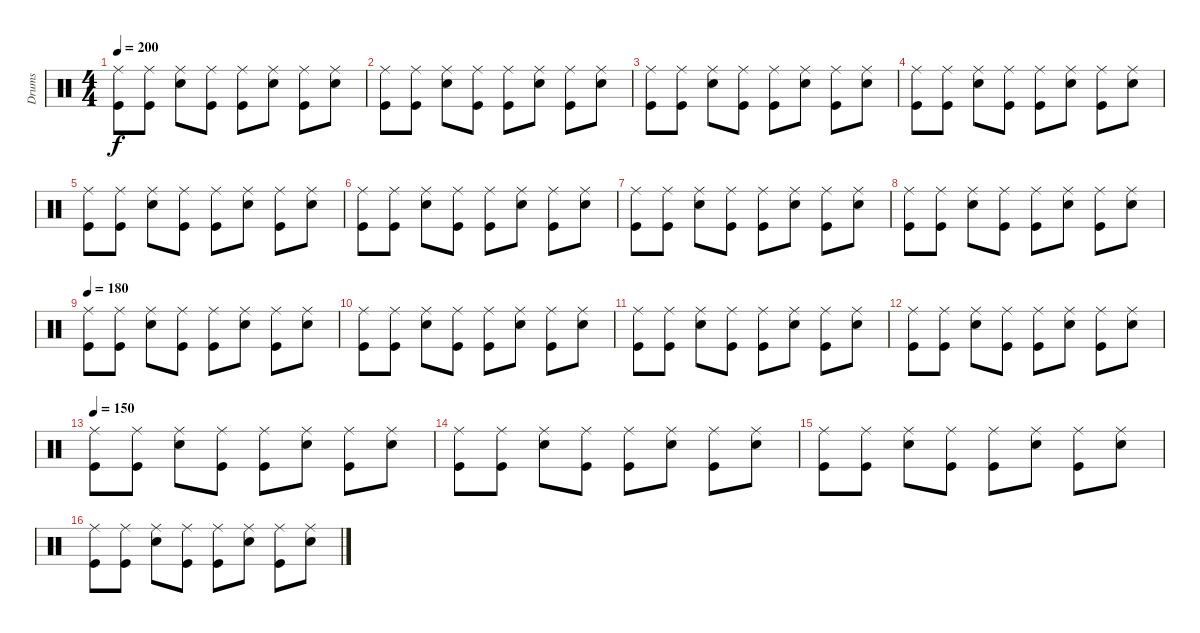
\track ("Drums" "Drums") {instrument percussion}
\staff {score}
\articulation defaults
\ts (4 4)
\tempo 200
\clef neutral
\ks c
("Ride (middle)" "Kick (hit)").8{dy f} ("Ride (middle)" "Kick (hit)").8 ("Ride (middle)" "Electric Snare (hit)").8 ("Ride (middle)" "Kick (hit)").8 ("Ride (middle)" "Kick (hit)").8 ("Ride (middle)" "Electric Snare (hit)").8 ("Ride (middle)" "Kick (hit)").8 ("Ride (middle)" "Electric Snare (hit)").8 |
("Ride (middle)" "Kick (hit)").8 ("Ride (middle)" "Kick (hit)").8 ("Ride (middle)" "Electric Snare (hit)").8 ("Ride (middle)" "Kick (hit)").8 ("Ride (middle)" "Kick (hit)").8 ("Ride (middle)" "Electric Snare (hit)").8 ("Ride (middle)" "Kick (hit)").8 ("Ride (middle)" "Electric Snare (hit)").8 |
("Ride (middle)" "Kick (hit)").8 ("Ride (middle)" "Kick (hit)").8 ("Ride (middle)" "Electric Snare (hit)").8 ("Ride (middle)" "Kick (hit)").8 ("Ride (middle)" "Kick (hit)").8 ("Ride (middle)" "Electric Snare (hit)").8 ("Ride (middle)" "Kick (hit)").8 ("Ride (middle)" "Electric Snare (hit)").8 |
("Ride (middle)" "Kick (hit)").8 ("Ride (middle)" "Kick (hit)").8 ("Ride (middle)" "Electric Snare (hit)").8 ("Ride (middle)" "Kick (hit)").8 ("Ride (middle)" "Kick (hit)").8 ("Ride (middle)" "Electric Snare (hit)").8 ("Ride (middle)" "Kick (hit)").8 ("Ride (middle)" "Electric Snare (hit)").8 |
("Ride (middle)" "Kick (hit)").8 ("Ride (middle)" "Kick (hit)").8 ("Ride (middle)" "Electric Snare (hit)").8 ("Ride (middle)" "Kick (hit)").8 ("Ride (middle)" "Kick (hit)").8 ("Ride (middle)" "Electric Snare (hit)").8 ("Ride (middle)" "Kick (hit)").8 ("Ride (middle)" "Electric Snare (hit)").8 |
("Ride (middle)" "Kick (hit)").8 ("Ride (middle)" "Kick (hit)").8 ("Ride (middle)" "Electric Snare (hit)").8 ("Ride (middle)" "Kick (hit)").8 ("Ride (middle)" "Kick (hit)").8 ("Ride (middle)" "Electric Snare (hit)").8 ("Ride (middle)" "Kick (hit)").8 ("Ride (middle)" "Electric Snare (hit)").8 |
("Ride (middle)" "Kick (hit)").8 ("Ride (middle)" "Kick (hit)").8 ("Ride (middle)" "Electric Snare (hit)").8 ("Ride (middle)" "Kick (hit)").8 ("Ride (middle)" "Kick (hit)").8 ("Ride (middle)" "Electric Snare (hit)").8 ("Ride (middle)" "Kick (hit)").8 ("Ride (middle)" "Electric Snare (hit)").8 |
("Ride (middle)" "Kick (hit)").8 ("Ride (middle)" "Kick (hit)").8 ("Ride (middle)" "Electric Snare (hit)").8 ("Ride (middle)" "Kick (hit)").8 ("Ride (middle)" "Kick (hit)").8 ("Ride (middle)" "Electric Snare (hit)").8 ("Ride (middle)" "Kick (hit)").8 ("Ride (middle)" "Electric Snare (hit)").8 |
\tempo 180
("Ride (middle)" "Kick (hit)").8 ("Ride (middle)" "Kick (hit)").8 ("Ride (middle)" "Electric Snare (hit)").8 ("Ride (middle)" "Kick (hit)").8 ("Ride (middle)" "Kick (hit)").8 ("Ride (middle)" "Electric Snare (hit)").8 ("Ride (middle)" "Kick (hit)").8 ("Ride (middle)" "Electric Snare (hit)").8 |
("Ride (middle)" "Kick (hit)").8 ("Ride (middle)" "Kick (hit)").8 ("Ride (middle)" "Electric Snare (hit)").8 ("Ride (middle)" "Kick (hit)").8 ("Ride (middle)" "Kick (hit)").8 ("Ride (middle)" "Electric Snare (hit)").8 ("Ride (middle)" "Kick (hit)").8 ("Ride (middle)" "Electric Snare (hit)").8 |
("Ride (middle)" "Kick (hit)").8 ("Ride (middle)" "Kick (hit)").8 ("Ride (middle)" "Electric Snare (hit)").8 ("Ride (middle)" "Kick (hit)").8 ("Ride (middle)" "Kick (hit)").8 ("Ride (middle)" "Electric Snare (hit)").8 ("Ride (middle)" "Kick (hit)").8 ("Ride (middle)" "Electric Snare (hit)").8 |
("Ride (middle)" "Kick (hit)").8 ("Ride (middle)" "Kick (hit)").8 ("Ride (middle)" "Electric Snare (hit)").8 ("Ride (middle)" "Kick (hit)").8 ("Ride (middle)" "Kick (hit)").8 ("Ride (middle)" "Electric Snare (hit)").8 ("Ride (middle)" "Kick (hit)").8 ("Ride (middle)" "Electric Snare (hit)").8 |
\tempo 150
("Ride (middle)" "Kick (hit)").8 ("Ride (middle)" "Kick (hit)").8 ("Ride (middle)" "Electric Snare (hit)").8 ("Ride (middle)" "Kick (hit)").8 ("Ride (middle)" "Kick (hit)").8 ("Ride (middle)" "Electric Snare (hit)").8 ("Ride (middle)" "Kick (hit)").8 ("Ride (middle)" "Electric Snare (hit)").8 |
("Ride (middle)" "Kick (hit)").8 ("Ride (middle)" "Kick (hit)").8 ("Ride (middle)" "Electric Snare (hit)").8 ("Ride (middle)" "Kick (hit)").8 ("Ride (middle)" "Kick (hit)").8 ("Ride (middle)" "Electric Snare (hit)").8 ("Ride (middle)" "Kick (hit)").8 ("Ride (middle)" "Electric Snare (hit)").8 |
("Ride (middle)" "Kick (hit)").8 ("Ride (middle)" "Kick (hit)").8 ("Ride (middle)" "Electric Snare (hit)").8 ("Ride (middle)" "Kick (hit)").8 ("Ride (middle)" "Kick (hit)").8 ("Ride (middle)" "Electric Snare (hit)").8 ("Ride (middle)" "Kick (hit)").8 ("Ride (middle)" "Electric Snare (hit)").8 |
("Ride (middle)" "Kick (hit)").8 ("Ride (middle)" "Kick (hit)").8 ("Ride (middle)" "Electric Snare (hit)").8 ("Ride (middle)" "Kick (hit)").8 ("Ride (middle)" "Kick (hit)").8 ("Ride (middle)" "Electric Snare (hit)").8 ("Ride (middle)" "Kick (hit)").8 ("Ride (middle)" "Electric Snare (hit)").8
